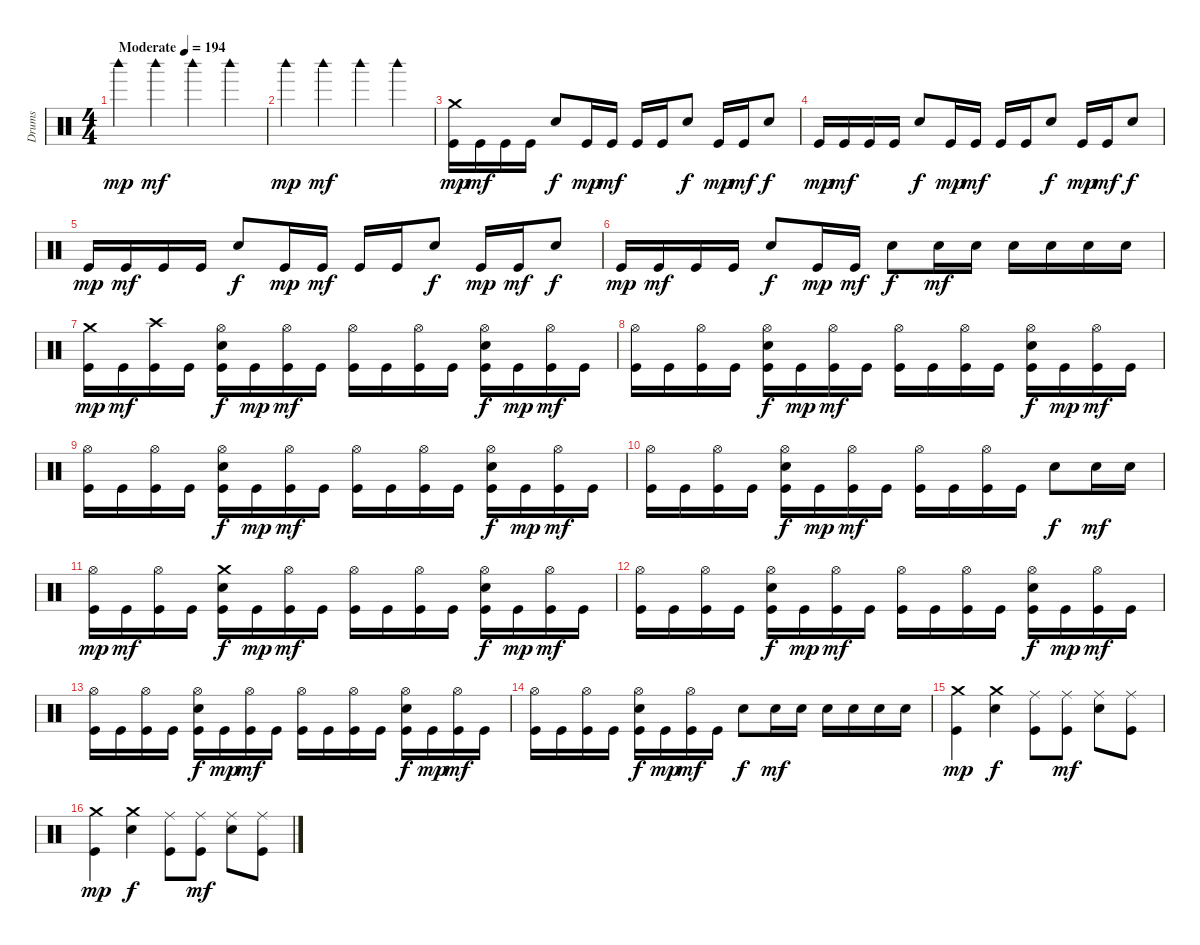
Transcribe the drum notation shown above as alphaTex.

\track ("Drums" "Drums") {instrument percussion}
\staff {score}
\articulation defaults
\ts (4 4)
\tempo (194 "Moderate")
\clef neutral
\ks c "Woodblock high (hit)".4{dy mp} "Woodblock high (hit)".4{dy mf} "Woodblock high (hit)".4 "Woodblock high (hit)".4
|
"Woodblock high (hit)".4{dy mp} "Woodblock high (hit)".4{dy mf} "Woodblock high (hit)".4 "Woodblock high (hit)".4 |
("Crash medium (hit)" "Kick (hit)").16{dy mp} "Kick (hit)".16{dy mf} "Kick (hit)".16 "Kick (hit)".16 "Snare (hit) 2".8{dy f} "Kick (hit)".16{dy mp} "Kick (hit)".16{dy mf} "Kick (hit)".16 "Kick (hit)".16 "Snare (hit) 2".8{dy f} "Kick (hit)".16{dy mp} "Kick (hit)".16{dy mf} "Snare (hit) 2".8{dy f} |
"Kick (hit)".16{dy mp} "Kick (hit)".16{dy mf} "Kick (hit)".16 "Kick (hit)".16 "Snare (hit) 2".8{dy f} "Kick (hit)".16{dy mp} "Kick (hit)".16{dy mf} "Kick (hit)".16 "Kick (hit)".16 "Snare (hit) 2".8{dy f} "Kick (hit)".16{dy mp} "Kick (hit)".16{dy mf} "Snare (hit) 2".8{dy f} |
"Kick (hit)".16{dy mp} "Kick (hit)".16{dy mf} "Kick (hit)".16 "Kick (hit)".16 "Snare (hit) 2".8{dy f} "Kick (hit)".16{dy mp} "Kick (hit)".16{dy mf} "Kick (hit)".16 "Kick (hit)".16 "Snare (hit) 2".8{dy f} "Kick (hit)".16{dy mp} "Kick (hit)".16{dy mf} "Snare (hit) 2".8{dy f} |
"Kick (hit)".16{dy mp} "Kick (hit)".16{dy mf} "Kick (hit)".16 "Kick (hit)".16 "Snare (hit) 2".8{dy f} "Kick (hit)".16{dy mp} "Kick (hit)".16{dy mf} "Snare (hit) 2".8{dy f} "Snare (hit) 2".16{dy mf} "Snare (hit) 2".16 "Snare (hit) 2".16 "Snare (hit) 2".16 "Snare (hit) 2".16 "Snare (hit) 2".16 |
("Crash medium (hit)" "Kick (hit)").16{dy mp} "Kick (hit)".16{dy mf} ("Crash high (hit)" "Kick (hit)").16 "Kick (hit)".16 ("Hi-Hat (open)" "Kick (hit)" "Snare (hit) 2").16{dy f} "Kick (hit)".16{dy mp} ("Hi-Hat (open)" "Kick (hit)").16{dy mf} "Kick (hit)".16 ("Hi-Hat (open)" "Kick (hit)").16 "Kick (hit)".16 ("Hi-Hat (open)" "Kick (hit)").16 "Kick (hit)".16 ("Hi-Hat (open)" "Kick (hit)" "Snare (hit) 2").16{dy f} "Kick (hit)".16{dy mp} ("Hi-Hat (open)" "Kick (hit)").16{dy mf} "Kick (hit)".16 |
("Hi-Hat (open)" "Kick (hit)").16 "Kick (hit)".16 ("Hi-Hat (open)" "Kick (hit)").16 "Kick (hit)".16 ("Hi-Hat (open)" "Kick (hit)" "Snare (hit) 2").16{dy f} "Kick (hit)".16{dy mp} ("Hi-Hat (open)" "Kick (hit)").16{dy mf} "Kick (hit)".16 ("Hi-Hat (open)" "Kick (hit)").16 "Kick (hit)".16 ("Hi-Hat (open)" "Kick (hit)").16 "Kick (hit)".16 ("Hi-Hat (open)" "Kick (hit)" "Snare (hit) 2").16{dy f} "Kick (hit)".16{dy mp} ("Hi-Hat (open)" "Kick (hit)").16{dy mf} "Kick (hit)".16 |
("Hi-Hat (open)" "Kick (hit)").16 "Kick (hit)".16 ("Hi-Hat (open)" "Kick (hit)").16 "Kick (hit)".16 ("Hi-Hat (open)" "Kick (hit)" "Snare (hit) 2").16{dy f} "Kick (hit)".16{dy mp} ("Hi-Hat (open)" "Kick (hit)").16{dy mf} "Kick (hit)".16 ("Hi-Hat (open)" "Kick (hit)").16 "Kick (hit)".16 ("Hi-Hat (open)" "Kick (hit)").16 "Kick (hit)".16 ("Hi-Hat (open)" "Kick (hit)" "Snare (hit) 2").16{dy f} "Kick (hit)".16{dy mp} ("Hi-Hat (open)" "Kick (hit)").16{dy mf} "Kick (hit)".16 |
("Hi-Hat (open)" "Kick (hit)").16 "Kick (hit)".16 ("Hi-Hat (open)" "Kick (hit)").16 "Kick (hit)".16 ("Hi-Hat (open)" "Kick (hit)" "Snare (hit) 2").16{dy f} "Kick (hit)".16{dy mp} ("Hi-Hat (open)" "Kick (hit)").16{dy mf} "Kick (hit)".16 ("Hi-Hat (open)" "Kick (hit)").16 "Kick (hit)".16 ("Hi-Hat (open)" "Kick (hit)").16 "Kick (hit)".16 "Snare (hit) 2".8{dy f} "Snare (hit) 2".16{dy mf} "Snare (hit) 2".16 |
("Hi-Hat (open)" "Kick (hit)").16{dy mp} "Kick (hit)".16{dy mf} ("Hi-Hat (open)" "Kick (hit)").16 "Kick (hit)".16 ("Crash medium (hit)" "Kick (hit)" "Snare (hit) 2").16{dy f} "Kick (hit)".16{dy mp} ("Hi-Hat (open)" "Kick (hit)").16{dy mf} "Kick (hit)".16 ("Hi-Hat (open)" "Kick (hit)").16 "Kick (hit)".16 ("Hi-Hat (open)" "Kick (hit)").16 "Kick (hit)".16 ("Hi-Hat (open)" "Kick (hit)" "Snare (hit) 2").16{dy f} "Kick (hit)".16{dy mp} ("Hi-Hat (open)" "Kick (hit)").16{dy mf} "Kick (hit)".16 |
("Hi-Hat (open)" "Kick (hit)").16 "Kick (hit)".16 ("Hi-Hat (open)" "Kick (hit)").16 "Kick (hit)".16 ("Hi-Hat (open)" "Kick (hit)" "Snare (hit) 2").16{dy f} "Kick (hit)".16{dy mp} ("Hi-Hat (open)" "Kick (hit)").16{dy mf} "Kick (hit)".16 ("Hi-Hat (open)" "Kick (hit)").16 "Kick (hit)".16 ("Hi-Hat (open)" "Kick (hit)").16 "Kick (hit)".16 ("Hi-Hat (open)" "Kick (hit)" "Snare (hit) 2").16{dy f} "Kick (hit)".16{dy mp} ("Hi-Hat (open)" "Kick (hit)").16{dy mf} "Kick (hit)".16 |
("Hi-Hat (open)" "Kick (hit)").16 "Kick (hit)".16 ("Hi-Hat (open)" "Kick (hit)").16 "Kick (hit)".16 ("Hi-Hat (open)" "Kick (hit)" "Snare (hit) 2").16{dy f} "Kick (hit)".16{dy mp} ("Hi-Hat (open)" "Kick (hit)").16{dy mf} "Kick (hit)".16 ("Hi-Hat (open)" "Kick (hit)").16 "Kick (hit)".16 ("Hi-Hat (open)" "Kick (hit)").16 "Kick (hit)".16 ("Hi-Hat (open)" "Kick (hit)" "Snare (hit) 2").16{dy f} "Kick (hit)".16{dy mp} ("Hi-Hat (open)" "Kick (hit)").16{dy mf} "Kick (hit)".16 |
("Hi-Hat (open)" "Kick (hit)").16 "Kick (hit)".16 ("Hi-Hat (open)" "Kick (hit)").16 "Kick (hit)".16 ("Hi-Hat (open)" "Kick (hit)" "Snare (hit) 2").16{dy f} "Kick (hit)".16{dy mp} ("Hi-Hat (open)" "Kick (hit)").16{dy mf} "Kick (hit)".16 "Snare (hit) 2".8{dy f} "Snare (hit) 2".16{dy mf} "Snare (hit) 2".16 "Snare (hit) 2".16 "Snare (hit) 2".16 "Snare (hit) 2".16 "Snare (hit) 2".16 |
("Crash medium (hit)" "Kick (hit)").4{dy mp} ("Crash medium (hit)" "Snare (hit) 2").4{dy f} ("Kick (hit)" "Ride (middle)").8 ("Kick (hit)" "Ride (middle)").8{dy mf} ("Snare (hit) 2" "Ride (middle)").8 ("Kick (hit)" "Ride (middle)").8 |
("Crash medium (hit)" "Kick (hit)").4{dy mp} ("Crash medium (hit)" "Snare (hit) 2").4{dy f} ("Kick (hit)" "Ride (middle)").8 ("Kick (hit)" "Ride (middle)").8{dy mf} ("Snare (hit) 2" "Ride (middle)").8 ("Kick (hit)" "Ride (middle)").8
